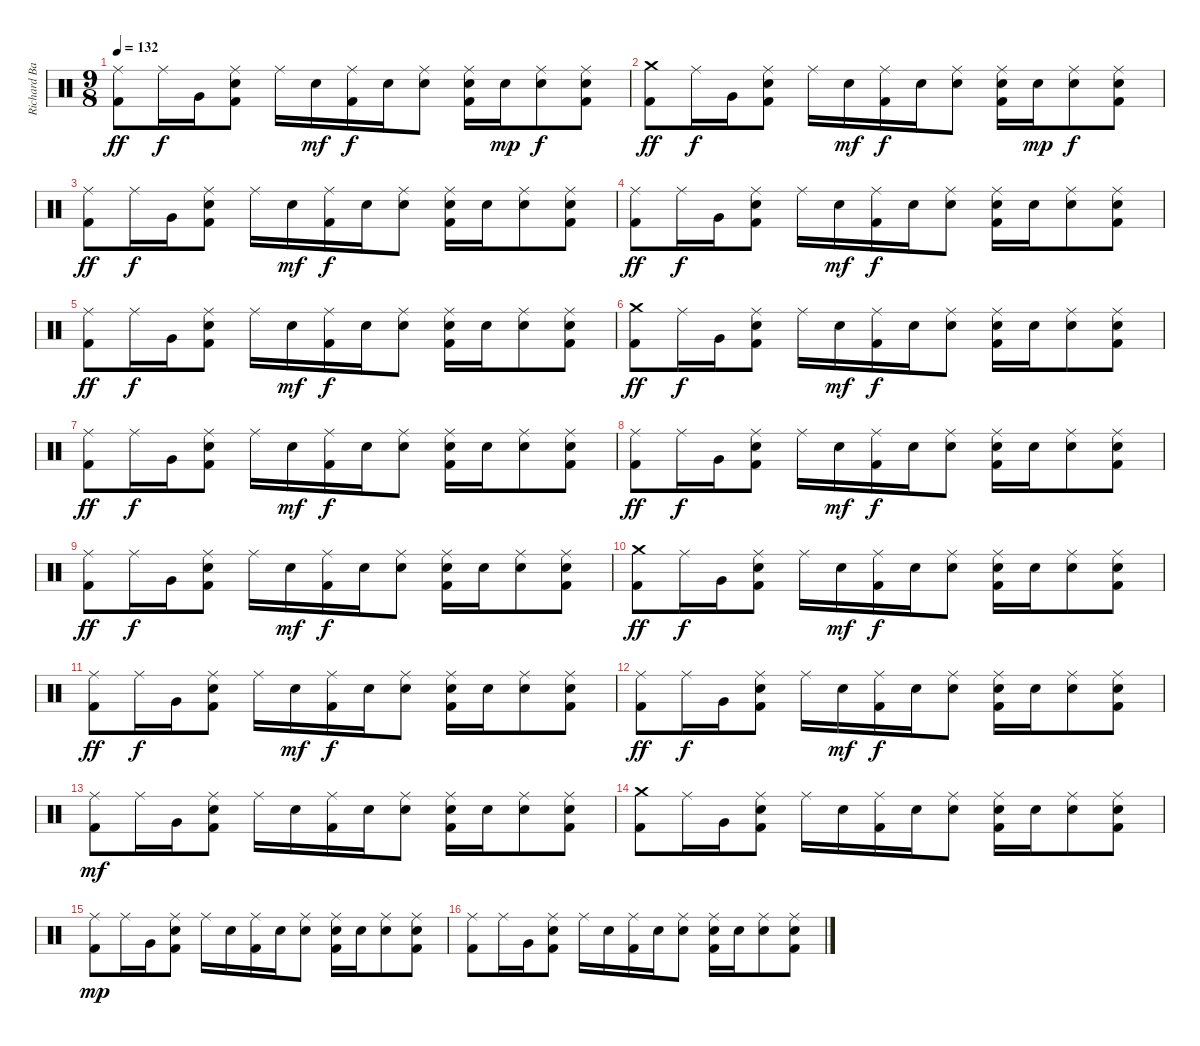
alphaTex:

\track ("Richard Bailey" "Richard Ba") {instrument percussion}
\staff {score}
\articulation defaults
\ts (9 8)
\tempo 132
\clef neutral
\ks c
("Ride (middle)" "Kick (hit) 2").8{dy ff} "Ride (middle)".16{dy f} "Very Low Tom (hit)".16 ("Ride (middle)" "Snare (hit) 2" "Kick (hit) 2").8 "Ride (middle)".16 "Snare (hit) 2".16{dy mf} ("Ride (middle)" "Kick (hit) 2").16{dy f} "Snare (hit) 2".16 ("Ride (middle)" "Snare (hit) 2").8 ("Ride (middle)" "Snare (hit) 2" "Kick (hit) 2").16 "Snare (hit) 2".16{dy mp} ("Ride (middle)" "Snare (hit) 2").8{dy f} ("Ride (middle)" "Snare (hit) 2" "Kick (hit) 2").8 |
("Crash medium (hit)" "Kick (hit) 2").8{dy ff} "Ride (middle)".16{dy f} "Very Low Tom (hit)".16 ("Ride (middle)" "Snare (hit) 2" "Kick (hit) 2").8 "Ride (middle)".16 "Snare (hit) 2".16{dy mf} ("Ride (middle)" "Kick (hit) 2").16{dy f} "Snare (hit) 2".16 ("Ride (middle)" "Snare (hit) 2").8 ("Ride (middle)" "Snare (hit) 2" "Kick (hit) 2").16 "Snare (hit) 2".16{dy mp} ("Ride (middle)" "Snare (hit) 2").8{dy f} ("Ride (middle)" "Snare (hit) 2" "Kick (hit) 2").8 |
("Ride (middle)" "Kick (hit) 2").8{dy ff} "Ride (middle)".16{dy f} "Very Low Tom (hit)".16 ("Ride (middle)" "Snare (hit) 2" "Kick (hit) 2").8 "Ride (middle)".16 "Snare (hit) 2".16{dy mf} ("Ride (middle)" "Kick (hit) 2").16{dy f} "Snare (hit) 2".16 ("Ride (middle)" "Snare (hit) 2").8 ("Ride (middle)" "Snare (hit) 2" "Kick (hit) 2").16 "Snare (hit) 2".16 ("Ride (middle)" "Snare (hit) 2").8 ("Ride (middle)" "Snare (hit) 2" "Kick (hit) 2").8 |
("Ride (middle)" "Kick (hit) 2").8{dy ff} "Ride (middle)".16{dy f} "Very Low Tom (hit)".16 ("Ride (middle)" "Snare (hit) 2" "Kick (hit) 2").8 "Ride (middle)".16 "Snare (hit) 2".16{dy mf} ("Ride (middle)" "Kick (hit) 2").16{dy f} "Snare (hit) 2".16 ("Ride (middle)" "Snare (hit) 2").8 ("Ride (middle)" "Snare (hit) 2" "Kick (hit) 2").16 "Snare (hit) 2".16 ("Ride (middle)" "Snare (hit) 2").8 ("Ride (middle)" "Snare (hit) 2" "Kick (hit) 2").8 |
("Ride (middle)" "Kick (hit) 2").8{dy ff} "Ride (middle)".16{dy f} "Very Low Tom (hit)".16 ("Ride (middle)" "Snare (hit) 2" "Kick (hit) 2").8 "Ride (middle)".16 "Snare (hit) 2".16{dy mf} ("Ride (middle)" "Kick (hit) 2").16{dy f} "Snare (hit) 2".16 ("Ride (middle)" "Snare (hit) 2").8 ("Ride (middle)" "Snare (hit) 2" "Kick (hit) 2").16 "Snare (hit) 2".16 ("Ride (middle)" "Snare (hit) 2").8 ("Ride (middle)" "Snare (hit) 2" "Kick (hit) 2").8 |
("Crash medium (hit)" "Kick (hit) 2").8{dy ff} "Ride (middle)".16{dy f} "Very Low Tom (hit)".16 ("Ride (middle)" "Snare (hit) 2" "Kick (hit) 2").8 "Ride (middle)".16 "Snare (hit) 2".16{dy mf} ("Ride (middle)" "Kick (hit) 2").16{dy f} "Snare (hit) 2".16 ("Ride (middle)" "Snare (hit) 2").8 ("Ride (middle)" "Snare (hit) 2" "Kick (hit) 2").16 "Snare (hit) 2".16 ("Ride (middle)" "Snare (hit) 2").8 ("Ride (middle)" "Snare (hit) 2" "Kick (hit) 2").8 |
("Ride (middle)" "Kick (hit) 2").8{dy ff} "Ride (middle)".16{dy f} "Very Low Tom (hit)".16 ("Ride (middle)" "Snare (hit) 2" "Kick (hit) 2").8 "Ride (middle)".16 "Snare (hit) 2".16{dy mf} ("Ride (middle)" "Kick (hit) 2").16{dy f} "Snare (hit) 2".16 ("Ride (middle)" "Snare (hit) 2").8 ("Ride (middle)" "Snare (hit) 2" "Kick (hit) 2").16 "Snare (hit) 2".16 ("Ride (middle)" "Snare (hit) 2").8 ("Ride (middle)" "Snare (hit) 2" "Kick (hit) 2").8 |
("Ride (middle)" "Kick (hit) 2").8{dy ff} "Ride (middle)".16{dy f} "Very Low Tom (hit)".16 ("Ride (middle)" "Snare (hit) 2" "Kick (hit) 2").8 "Ride (middle)".16 "Snare (hit) 2".16{dy mf} ("Ride (middle)" "Kick (hit) 2").16{dy f} "Snare (hit) 2".16 ("Ride (middle)" "Snare (hit) 2").8 ("Ride (middle)" "Snare (hit) 2" "Kick (hit) 2").16 "Snare (hit) 2".16 ("Ride (middle)" "Snare (hit) 2").8 ("Ride (middle)" "Snare (hit) 2" "Kick (hit) 2").8 |
("Ride (middle)" "Kick (hit) 2").8{dy ff} "Ride (middle)".16{dy f} "Very Low Tom (hit)".16 ("Ride (middle)" "Snare (hit) 2" "Kick (hit) 2").8 "Ride (middle)".16 "Snare (hit) 2".16{dy mf} ("Ride (middle)" "Kick (hit) 2").16{dy f} "Snare (hit) 2".16 ("Ride (middle)" "Snare (hit) 2").8 ("Ride (middle)" "Snare (hit) 2" "Kick (hit) 2").16 "Snare (hit) 2".16 ("Ride (middle)" "Snare (hit) 2").8 ("Ride (middle)" "Snare (hit) 2" "Kick (hit) 2").8 |
("Crash medium (hit)" "Kick (hit) 2").8{dy ff} "Ride (middle)".16{dy f} "Very Low Tom (hit)".16 ("Ride (middle)" "Snare (hit) 2" "Kick (hit) 2").8 "Ride (middle)".16 "Snare (hit) 2".16{dy mf} ("Ride (middle)" "Kick (hit) 2").16{dy f} "Snare (hit) 2".16 ("Ride (middle)" "Snare (hit) 2").8 ("Ride (middle)" "Snare (hit) 2" "Kick (hit) 2").16 "Snare (hit) 2".16 ("Ride (middle)" "Snare (hit) 2").8 ("Ride (middle)" "Snare (hit) 2" "Kick (hit) 2").8 |
("Ride (middle)" "Kick (hit) 2").8{dy ff} "Ride (middle)".16{dy f} "Very Low Tom (hit)".16 ("Ride (middle)" "Snare (hit) 2" "Kick (hit) 2").8 "Ride (middle)".16 "Snare (hit) 2".16{dy mf} ("Ride (middle)" "Kick (hit) 2").16{dy f} "Snare (hit) 2".16 ("Ride (middle)" "Snare (hit) 2").8 ("Ride (middle)" "Snare (hit) 2" "Kick (hit) 2").16 "Snare (hit) 2".16 ("Ride (middle)" "Snare (hit) 2").8 ("Ride (middle)" "Snare (hit) 2" "Kick (hit) 2").8 |
("Ride (middle)" "Kick (hit) 2").8{dy ff} "Ride (middle)".16{dy f} "Very Low Tom (hit)".16 ("Ride (middle)" "Snare (hit) 2" "Kick (hit) 2").8 "Ride (middle)".16 "Snare (hit) 2".16{dy mf} ("Ride (middle)" "Kick (hit) 2").16{dy f} "Snare (hit) 2".16 ("Ride (middle)" "Snare (hit) 2").8 ("Ride (middle)" "Snare (hit) 2" "Kick (hit) 2").16 "Snare (hit) 2".16 ("Ride (middle)" "Snare (hit) 2").8 ("Ride (middle)" "Snare (hit) 2" "Kick (hit) 2").8 |
("Ride (middle)" "Kick (hit) 2").8{dy mf} "Ride (middle)".16 "Very Low Tom (hit)".16 ("Ride (middle)" "Snare (hit) 2" "Kick (hit) 2").8 "Ride (middle)".16 "Snare (hit) 2".16 ("Ride (middle)" "Kick (hit) 2").16 "Snare (hit) 2".16 ("Ride (middle)" "Snare (hit) 2").8 ("Ride (middle)" "Snare (hit) 2" "Kick (hit) 2").16 "Snare (hit) 2".16 ("Ride (middle)" "Snare (hit) 2").8 ("Ride (middle)" "Snare (hit) 2" "Kick (hit) 2").8 |
("Crash medium (hit)" "Kick (hit) 2").8 "Ride (middle)".16 "Very Low Tom (hit)".16 ("Ride (middle)" "Snare (hit) 2" "Kick (hit) 2").8 "Ride (middle)".16 "Snare (hit) 2".16 ("Ride (middle)" "Kick (hit) 2").16 "Snare (hit) 2".16 ("Ride (middle)" "Snare (hit) 2").8 ("Ride (middle)" "Snare (hit) 2" "Kick (hit) 2").16 "Snare (hit) 2".16 ("Ride (middle)" "Snare (hit) 2").8 ("Ride (middle)" "Snare (hit) 2" "Kick (hit) 2").8 |
("Ride (middle)" "Kick (hit) 2").8{dy mp volume 0} "Ride (middle)".16 "Very Low Tom (hit)".16 ("Ride (middle)" "Snare (hit) 2" "Kick (hit) 2").8 "Ride (middle)".16 "Snare (hit) 2".16 ("Ride (middle)" "Kick (hit) 2").16 "Snare (hit) 2".16 ("Ride (middle)" "Snare (hit) 2").8 ("Ride (middle)" "Snare (hit) 2" "Kick (hit) 2").16 "Snare (hit) 2".16 ("Ride (middle)" "Snare (hit) 2").8 ("Ride (middle)" "Snare (hit) 2" "Kick (hit) 2").8 |
("Ride (middle)" "Kick (hit) 2").8 "Ride (middle)".16 "Very Low Tom (hit)".16 ("Ride (middle)" "Snare (hit) 2" "Kick (hit) 2").8 "Ride (middle)".16 "Snare (hit) 2".16 ("Ride (middle)" "Kick (hit) 2").16 "Snare (hit) 2".16 ("Ride (middle)" "Snare (hit) 2").8 ("Ride (middle)" "Snare (hit) 2" "Kick (hit) 2").16 "Snare (hit) 2".16 ("Ride (middle)" "Snare (hit) 2").8 ("Ride (middle)" "Snare (hit) 2" "Kick (hit) 2").8
